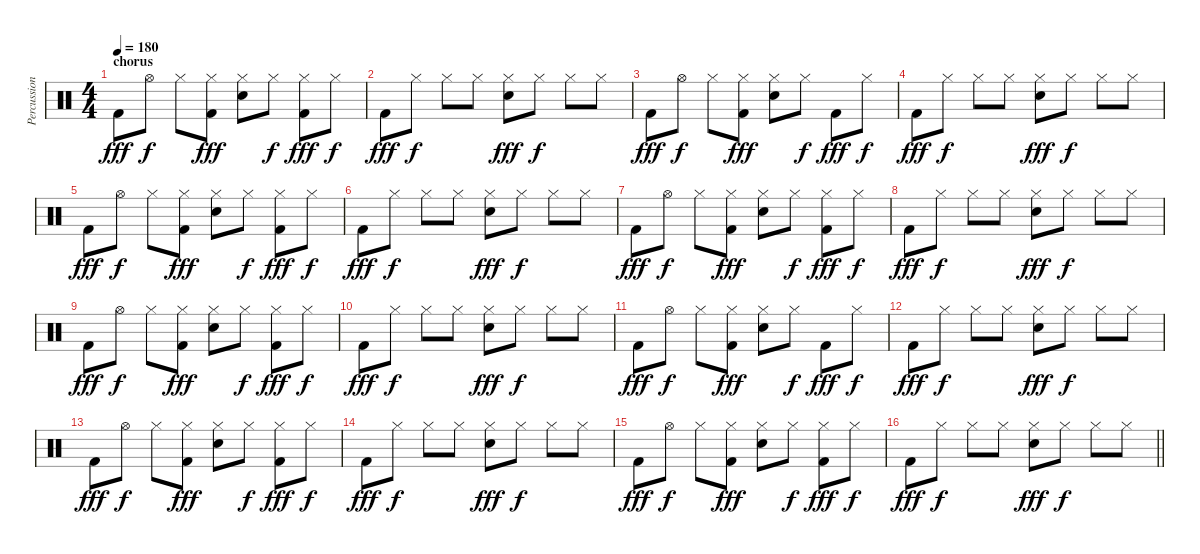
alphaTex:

\track ("Percussion" "Percussion") {instrument percussion}
\staff {score}
\articulation defaults
\ts (4 4)
\section ("" "chorus")
\tempo 180
\clef neutral
\ks c "Kick (hit) 2".8{dy fff} "Hi-Hat (open)".8{dy f} "Hi-Hat (closed)".8
("Kick (hit) 2" "Hi-Hat (closed)").8{dy fff} ("Snare (hit) 2" "Hi-Hat (closed)").8 "Hi-Hat (closed)".8{dy f} ("Kick (hit) 2" "Hi-Hat (closed)").8{dy fff} "Hi-Hat (closed)".8{dy f} |
"Kick (hit) 2".8{dy fff} "Hi-Hat (closed)".8{dy f} "Hi-Hat (closed)".8 "Hi-Hat (closed)".8 ("Snare (hit) 2" "Hi-Hat (closed)").8{dy fff} "Hi-Hat (closed)".8{dy f} "Hi-Hat (closed)".8 "Hi-Hat (closed)".8 |
"Kick (hit) 2".8{dy fff} "Hi-Hat (open)".8{dy f} "Hi-Hat (closed)".8 ("Kick (hit) 2" "Hi-Hat (closed)").8{dy fff} ("Snare (hit) 2" "Hi-Hat (closed)").8 "Hi-Hat (closed)".8{dy f} "Kick (hit) 2".8{dy fff} "Hi-Hat (closed)".8{dy f} |
"Kick (hit) 2".8{dy fff} "Hi-Hat (closed)".8{dy f} "Hi-Hat (closed)".8 "Hi-Hat (closed)".8 ("Snare (hit) 2" "Hi-Hat (closed)").8{dy fff} "Hi-Hat (closed)".8{dy f} "Hi-Hat (closed)".8 "Hi-Hat (closed)".8 |
"Kick (hit) 2".8{dy fff} "Hi-Hat (open)".8{dy f} "Hi-Hat (closed)".8 ("Kick (hit) 2" "Hi-Hat (closed)").8{dy fff} ("Snare (hit) 2" "Hi-Hat (closed)").8 "Hi-Hat (closed)".8{dy f} ("Kick (hit) 2" "Hi-Hat (closed)").8{dy fff} "Hi-Hat (closed)".8{dy f} |
"Kick (hit) 2".8{dy fff} "Hi-Hat (closed)".8{dy f} "Hi-Hat (closed)".8 "Hi-Hat (closed)".8 ("Snare (hit) 2" "Hi-Hat (closed)").8{dy fff} "Hi-Hat (closed)".8{dy f} "Hi-Hat (closed)".8 "Hi-Hat (closed)".8 |
"Kick (hit) 2".8{dy fff} "Hi-Hat (open)".8{dy f} "Hi-Hat (closed)".8 ("Kick (hit) 2" "Hi-Hat (closed)").8{dy fff} ("Snare (hit) 2" "Hi-Hat (closed)").8 "Hi-Hat (closed)".8{dy f} ("Kick (hit) 2" "Hi-Hat (closed)").8{dy fff} "Hi-Hat (closed)".8{dy f} |
"Kick (hit) 2".8{dy fff} "Hi-Hat (closed)".8{dy f} "Hi-Hat (closed)".8 "Hi-Hat (closed)".8 ("Snare (hit) 2" "Hi-Hat (closed)").8{dy fff} "Hi-Hat (closed)".8{dy f} "Hi-Hat (closed)".8 "Hi-Hat (closed)".8 |
"Kick (hit) 2".8{dy fff} "Hi-Hat (open)".8{dy f} "Hi-Hat (closed)".8 ("Kick (hit) 2" "Hi-Hat (closed)").8{dy fff} ("Snare (hit) 2" "Hi-Hat (closed)").8 "Hi-Hat (closed)".8{dy f} ("Kick (hit) 2" "Hi-Hat (closed)").8{dy fff} "Hi-Hat (closed)".8{dy f} |
"Kick (hit) 2".8{dy fff} "Hi-Hat (closed)".8{dy f} "Hi-Hat (closed)".8 "Hi-Hat (closed)".8 ("Snare (hit) 2" "Hi-Hat (closed)").8{dy fff} "Hi-Hat (closed)".8{dy f} "Hi-Hat (closed)".8 "Hi-Hat (closed)".8 |
"Kick (hit) 2".8{dy fff} "Hi-Hat (open)".8{dy f} "Hi-Hat (closed)".8 ("Kick (hit) 2" "Hi-Hat (closed)").8{dy fff} ("Snare (hit) 2" "Hi-Hat (closed)").8 "Hi-Hat (closed)".8{dy f} "Kick (hit) 2".8{dy fff} "Hi-Hat (closed)".8{dy f} |
"Kick (hit) 2".8{dy fff} "Hi-Hat (closed)".8{dy f} "Hi-Hat (closed)".8 "Hi-Hat (closed)".8 ("Snare (hit) 2" "Hi-Hat (closed)").8{dy fff} "Hi-Hat (closed)".8{dy f} "Hi-Hat (closed)".8 "Hi-Hat (closed)".8 |
"Kick (hit) 2".8{dy fff} "Hi-Hat (open)".8{dy f} "Hi-Hat (closed)".8 ("Kick (hit) 2" "Hi-Hat (closed)").8{dy fff} ("Snare (hit) 2" "Hi-Hat (closed)").8 "Hi-Hat (closed)".8{dy f} ("Kick (hit) 2" "Hi-Hat (closed)").8{dy fff} "Hi-Hat (closed)".8{dy f} |
"Kick (hit) 2".8{dy fff} "Hi-Hat (closed)".8{dy f} "Hi-Hat (closed)".8 "Hi-Hat (closed)".8 ("Snare (hit) 2" "Hi-Hat (closed)").8{dy fff} "Hi-Hat (closed)".8{dy f} "Hi-Hat (closed)".8 "Hi-Hat (closed)".8 |
"Kick (hit) 2".8{dy fff} "Hi-Hat (open)".8{dy f} "Hi-Hat (closed)".8 ("Kick (hit) 2" "Hi-Hat (closed)").8{dy fff} ("Snare (hit) 2" "Hi-Hat (closed)").8 "Hi-Hat (closed)".8{dy f} ("Kick (hit) 2" "Hi-Hat (closed)").8{dy fff} "Hi-Hat (closed)".8{dy f} |
\barLineRight lightlight "Kick (hit) 2".8{dy fff} "Hi-Hat (closed)".8{dy f} "Hi-Hat (closed)".8 "Hi-Hat (closed)".8
("Snare (hit) 2" "Hi-Hat (closed)").8{dy fff} "Hi-Hat (closed)".8{dy f} "Hi-Hat (closed)".8 "Hi-Hat (closed)".8
